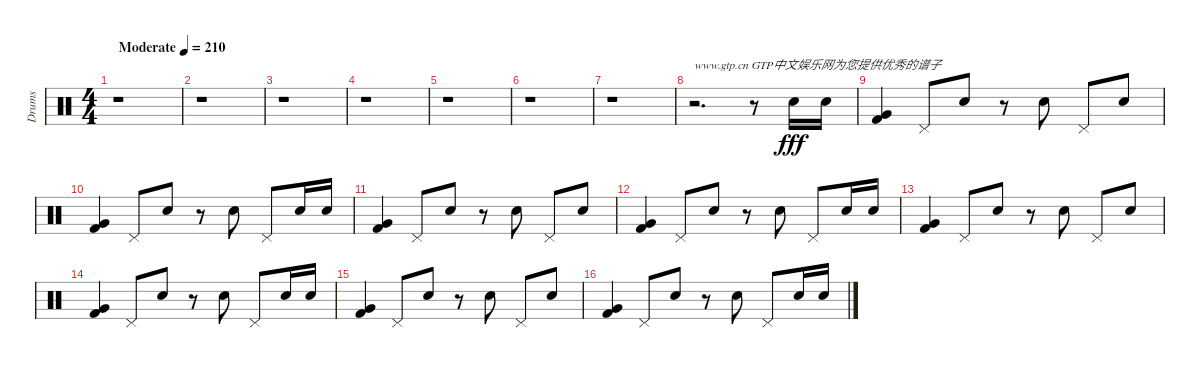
\track ("Drums" "Drums") {instrument percussion}
\staff {score}
\articulation defaults
\ts (4 4)
\tempo (210 "Moderate")
\clef neutral
\ks c
r.1{dy fff} |
r.1 |
r.1 |
r.1 |
r.1 |
r.1 |
r.1 |
r.2{d txt "www.gtp.cn GTP中文娱乐网为您提供优秀的谱子"} r.8 "Electric Snare (hit)".16 "Electric Snare (hit)".16 |
("Very Low Tom (hit)" "Kick (hit) 2").4 "Pedal Hi-Hat (hit)".8 "Electric Snare (hit)".8 r.8 "Electric Snare (hit)".8 "Pedal Hi-Hat (hit)".8 "Electric Snare (hit)".8 |
("Very Low Tom (hit)" "Kick (hit) 2").4 "Pedal Hi-Hat (hit)".8 "Electric Snare (hit)".8 r.8 "Electric Snare (hit)".8 "Pedal Hi-Hat (hit)".8 "Electric Snare (hit)".16 "Electric Snare (hit)".16 |
("Very Low Tom (hit)" "Kick (hit) 2").4 "Pedal Hi-Hat (hit)".8 "Electric Snare (hit)".8 r.8 "Electric Snare (hit)".8 "Pedal Hi-Hat (hit)".8 "Electric Snare (hit)".8 |
("Very Low Tom (hit)" "Kick (hit) 2").4 "Pedal Hi-Hat (hit)".8 "Electric Snare (hit)".8 r.8 "Electric Snare (hit)".8 "Pedal Hi-Hat (hit)".8 "Electric Snare (hit)".16 "Electric Snare (hit)".16 |
("Very Low Tom (hit)" "Kick (hit) 2").4 "Pedal Hi-Hat (hit)".8 "Electric Snare (hit)".8 r.8 "Electric Snare (hit)".8 "Pedal Hi-Hat (hit)".8 "Electric Snare (hit)".8 |
("Very Low Tom (hit)" "Kick (hit) 2").4 "Pedal Hi-Hat (hit)".8 "Electric Snare (hit)".8 r.8 "Electric Snare (hit)".8 "Pedal Hi-Hat (hit)".8 "Electric Snare (hit)".16 "Electric Snare (hit)".16 |
("Very Low Tom (hit)" "Kick (hit) 2").4 "Pedal Hi-Hat (hit)".8 "Electric Snare (hit)".8 r.8 "Electric Snare (hit)".8 "Pedal Hi-Hat (hit)".8 "Electric Snare (hit)".8 |
("Very Low Tom (hit)" "Kick (hit) 2").4 "Pedal Hi-Hat (hit)".8 "Electric Snare (hit)".8 r.8 "Electric Snare (hit)".8 "Pedal Hi-Hat (hit)".8 "Electric Snare (hit)".16 "Electric Snare (hit)".16
